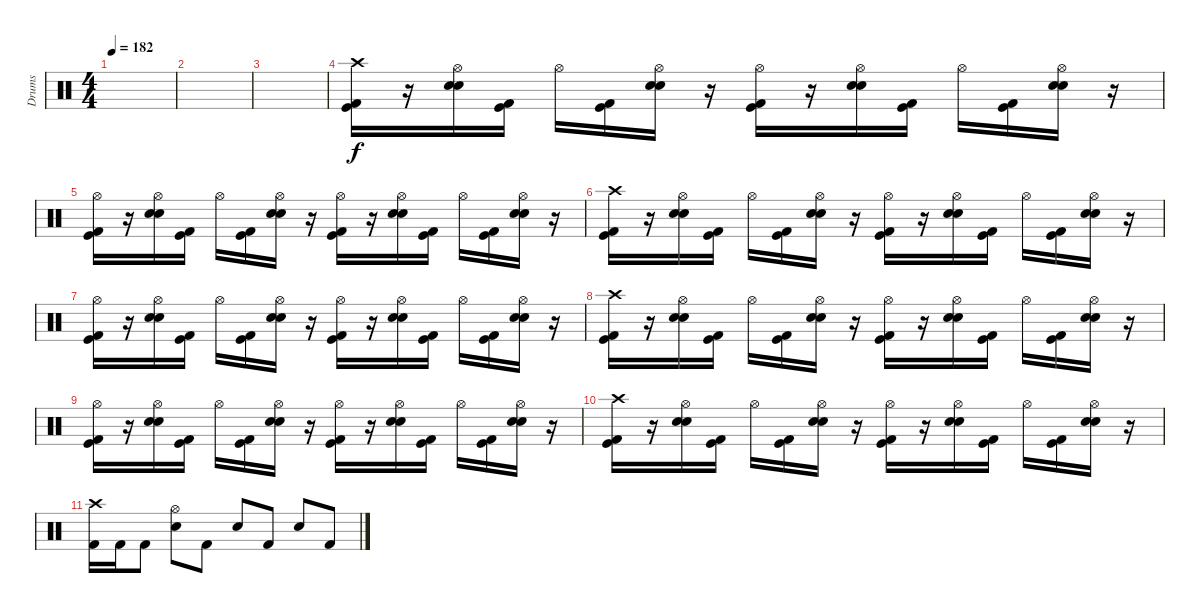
\track ("Drums" "Drums") {instrument percussion}
\staff {score}
\articulation defaults
\ts (4 4)
\tempo 182
\clef neutral
\ks c
|
|
|
("Crash high (hit)" "Kick (hit) 2" "Kick (hit)").16 r.16 ("Hi-Hat (open)" "Snare (hit) 2" "Electric Snare (hit)").16 ("Kick (hit) 2" "Kick (hit)").16 "Hi-Hat (open)".16 ("Kick (hit) 2" "Kick (hit)").16 ("Hi-Hat (open)" "Snare (hit) 2" "Electric Snare (hit)").16 r.16 ("Hi-Hat (open)" "Kick (hit) 2" "Kick (hit)").16 r.16 ("Hi-Hat (open)" "Snare (hit) 2" "Electric Snare (hit)").16 ("Kick (hit) 2" "Kick (hit)").16 "Hi-Hat (open)".16 ("Kick (hit) 2" "Kick (hit)").16 ("Hi-Hat (open)" "Snare (hit) 2" "Electric Snare (hit)").16 r.16 |
("Hi-Hat (open)" "Kick (hit) 2" "Kick (hit)").16 r.16 ("Hi-Hat (open)" "Snare (hit) 2" "Electric Snare (hit)").16 ("Kick (hit) 2" "Kick (hit)").16 "Hi-Hat (open)".16 ("Kick (hit) 2" "Kick (hit)").16 ("Hi-Hat (open)" "Snare (hit) 2" "Electric Snare (hit)").16 r.16 ("Hi-Hat (open)" "Kick (hit) 2" "Kick (hit)").16 r.16 ("Hi-Hat (open)" "Snare (hit) 2" "Electric Snare (hit)").16 ("Kick (hit) 2" "Kick (hit)").16 "Hi-Hat (open)".16 ("Kick (hit) 2" "Kick (hit)").16 ("Hi-Hat (open)" "Snare (hit) 2" "Electric Snare (hit)").16 r.16 |
("Crash high (hit)" "Kick (hit) 2" "Kick (hit)").16 r.16 ("Hi-Hat (open)" "Snare (hit) 2" "Electric Snare (hit)").16 ("Kick (hit) 2" "Kick (hit)").16 "Hi-Hat (open)".16 ("Kick (hit) 2" "Kick (hit)").16 ("Hi-Hat (open)" "Snare (hit) 2" "Electric Snare (hit)").16 r.16 ("Hi-Hat (open)" "Kick (hit) 2" "Kick (hit)").16 r.16 ("Hi-Hat (open)" "Snare (hit) 2" "Electric Snare (hit)").16 ("Kick (hit) 2" "Kick (hit)").16 "Hi-Hat (open)".16 ("Kick (hit) 2" "Kick (hit)").16 ("Hi-Hat (open)" "Snare (hit) 2" "Electric Snare (hit)").16 r.16 |
("Hi-Hat (open)" "Kick (hit) 2" "Kick (hit)").16 r.16 ("Hi-Hat (open)" "Snare (hit) 2" "Electric Snare (hit)").16 ("Kick (hit) 2" "Kick (hit)").16 "Hi-Hat (open)".16 ("Kick (hit) 2" "Kick (hit)").16 ("Hi-Hat (open)" "Snare (hit) 2" "Electric Snare (hit)").16 r.16 ("Hi-Hat (open)" "Kick (hit) 2" "Kick (hit)").16 r.16 ("Hi-Hat (open)" "Snare (hit) 2" "Electric Snare (hit)").16 ("Kick (hit) 2" "Kick (hit)").16 "Hi-Hat (open)".16 ("Kick (hit) 2" "Kick (hit)").16 ("Hi-Hat (open)" "Snare (hit) 2" "Electric Snare (hit)").16 r.16 |
("Crash high (hit)" "Kick (hit) 2" "Kick (hit)").16 r.16 ("Hi-Hat (open)" "Snare (hit) 2" "Electric Snare (hit)").16 ("Kick (hit) 2" "Kick (hit)").16 "Hi-Hat (open)".16 ("Kick (hit) 2" "Kick (hit)").16 ("Hi-Hat (open)" "Snare (hit) 2" "Electric Snare (hit)").16 r.16 ("Hi-Hat (open)" "Kick (hit) 2" "Kick (hit)").16 r.16 ("Hi-Hat (open)" "Snare (hit) 2" "Electric Snare (hit)").16 ("Kick (hit) 2" "Kick (hit)").16 "Hi-Hat (open)".16 ("Kick (hit) 2" "Kick (hit)").16 ("Hi-Hat (open)" "Snare (hit) 2" "Electric Snare (hit)").16 r.16 |
("Hi-Hat (open)" "Kick (hit) 2" "Kick (hit)").16 r.16 ("Hi-Hat (open)" "Snare (hit) 2" "Electric Snare (hit)").16 ("Kick (hit) 2" "Kick (hit)").16 "Hi-Hat (open)".16 ("Kick (hit) 2" "Kick (hit)").16 ("Hi-Hat (open)" "Snare (hit) 2" "Electric Snare (hit)").16 r.16 ("Hi-Hat (open)" "Kick (hit) 2" "Kick (hit)").16 r.16 ("Hi-Hat (open)" "Snare (hit) 2" "Electric Snare (hit)").16 ("Kick (hit) 2" "Kick (hit)").16 "Hi-Hat (open)".16 ("Kick (hit) 2" "Kick (hit)").16 ("Hi-Hat (open)" "Snare (hit) 2" "Electric Snare (hit)").16 r.16 |
("Crash high (hit)" "Kick (hit) 2" "Kick (hit)").16 r.16 ("Hi-Hat (open)" "Snare (hit) 2" "Electric Snare (hit)").16 ("Kick (hit) 2" "Kick (hit)").16 "Hi-Hat (open)".16 ("Kick (hit) 2" "Kick (hit)").16 ("Hi-Hat (open)" "Snare (hit) 2" "Electric Snare (hit)").16 r.16 ("Hi-Hat (open)" "Kick (hit) 2" "Kick (hit)").16 r.16 ("Hi-Hat (open)" "Snare (hit) 2" "Electric Snare (hit)").16 ("Kick (hit) 2" "Kick (hit)").16 "Hi-Hat (open)".16 ("Kick (hit) 2" "Kick (hit)").16 ("Hi-Hat (open)" "Snare (hit) 2" "Electric Snare (hit)").16 r.16 |
("Crash high (hit)" "Kick (hit) 2").16 "Kick (hit) 2".16 "Kick (hit) 2".8 ("Hi-Hat (open)" "Electric Snare (hit)").8 "Kick (hit) 2".8 "Electric Snare (hit)".8 "Kick (hit) 2".8 "Electric Snare (hit)".8 "Kick (hit) 2".8
